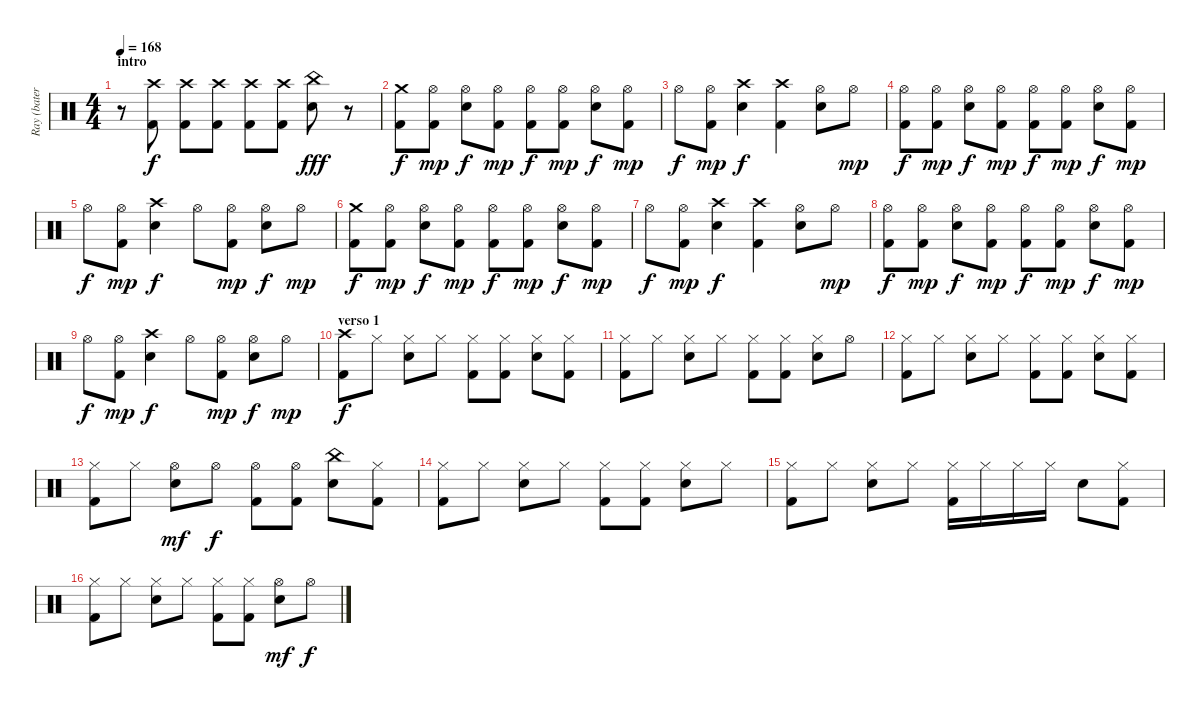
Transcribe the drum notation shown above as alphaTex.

\track ("Ray (batería)" "Ray (bater") {instrument percussion}
\staff {score}
\articulation defaults
\ts (4 4)
\section ("" "intro")
\tempo 168
\clef neutral
\ks c
r.8{dy f} ("Crash high (hit)" "Kick (hit) 2").8 ("Crash high (hit)" "Kick (hit) 2").8 ("Crash high (hit)" "Kick (hit) 2").8 ("Crash high (hit)" "Kick (hit) 2").8 ("Crash high (hit)" "Kick (hit) 2").8 ("China (hit)" "Snare (hit) 2").8{dy fff} r.8 |
("Crash medium (hit)" "Kick (hit) 2").8{dy f} ("Hi-Hat (open)" "Kick (hit) 2").8{dy mp} ("Hi-Hat (open)" "Snare (hit) 2").8{dy f} ("Hi-Hat (open)" "Kick (hit) 2").8{dy mp} ("Hi-Hat (open)" "Kick (hit) 2").8{dy f} ("Hi-Hat (open)" "Kick (hit) 2").8{dy mp} ("Hi-Hat (open)" "Snare (hit) 2").8{dy f} ("Hi-Hat (open)" "Kick (hit) 2").8{dy mp} |
"Hi-Hat (open)".8{dy f} ("Hi-Hat (open)" "Kick (hit) 2").8{dy mp} ("Crash high (hit)" "Snare (hit) 2").4{dy f} ("Crash high (hit)" "Kick (hit) 2").4 ("Hi-Hat (open)" "Snare (hit) 2").8 "Hi-Hat (open)".8{dy mp} |
("Hi-Hat (open)" "Kick (hit) 2").8{dy f} ("Hi-Hat (open)" "Kick (hit) 2").8{dy mp} ("Hi-Hat (open)" "Snare (hit) 2").8{dy f} ("Hi-Hat (open)" "Kick (hit) 2").8{dy mp} ("Hi-Hat (open)" "Kick (hit) 2").8{dy f} ("Hi-Hat (open)" "Kick (hit) 2").8{dy mp} ("Hi-Hat (open)" "Snare (hit) 2").8{dy f} ("Hi-Hat (open)" "Kick (hit) 2").8{dy mp} |
"Hi-Hat (open)".8{dy f} ("Hi-Hat (open)" "Kick (hit) 2").8{dy mp} ("Crash high (hit)" "Snare (hit) 2").4{dy f} "Hi-Hat (open)".8 ("Hi-Hat (open)" "Kick (hit) 2").8{dy mp} ("Hi-Hat (open)" "Snare (hit) 2").8{dy f} "Hi-Hat (open)".8{dy mp} |
("Crash medium (hit)" "Kick (hit) 2").8{dy f} ("Hi-Hat (open)" "Kick (hit) 2").8{dy mp} ("Hi-Hat (open)" "Snare (hit) 2").8{dy f} ("Hi-Hat (open)" "Kick (hit) 2").8{dy mp} ("Hi-Hat (open)" "Kick (hit) 2").8{dy f} ("Hi-Hat (open)" "Kick (hit) 2").8{dy mp} ("Hi-Hat (open)" "Snare (hit) 2").8{dy f} ("Hi-Hat (open)" "Kick (hit) 2").8{dy mp} |
"Hi-Hat (open)".8{dy f} ("Hi-Hat (open)" "Kick (hit) 2").8{dy mp} ("Crash high (hit)" "Snare (hit) 2").4{dy f} ("Crash high (hit)" "Kick (hit) 2").4 ("Hi-Hat (open)" "Snare (hit) 2").8 "Hi-Hat (open)".8{dy mp} |
("Hi-Hat (open)" "Kick (hit) 2").8{dy f} ("Hi-Hat (open)" "Kick (hit) 2").8{dy mp} ("Hi-Hat (open)" "Snare (hit) 2").8{dy f} ("Hi-Hat (open)" "Kick (hit) 2").8{dy mp} ("Hi-Hat (open)" "Kick (hit) 2").8{dy f} ("Hi-Hat (open)" "Kick (hit) 2").8{dy mp} ("Hi-Hat (open)" "Snare (hit) 2").8{dy f} ("Hi-Hat (open)" "Kick (hit) 2").8{dy mp} |
"Hi-Hat (open)".8{dy f} ("Hi-Hat (open)" "Kick (hit) 2").8{dy mp} ("Crash high (hit)" "Snare (hit) 2").4{dy f} "Hi-Hat (open)".8 ("Hi-Hat (open)" "Kick (hit) 2").8{dy mp} ("Hi-Hat (open)" "Snare (hit) 2").8{dy f} "Hi-Hat (open)".8{dy mp} |
\section ("" "verso 1")
("Crash high (hit)" "Kick (hit) 2").8{dy f} "Hi-Hat (closed)".8 ("Hi-Hat (closed)" "Snare (hit) 2").8 "Hi-Hat (closed)".8 ("Hi-Hat (closed)" "Kick (hit) 2").8 ("Hi-Hat (closed)" "Kick (hit) 2").8 ("Hi-Hat (closed)" "Snare (hit) 2").8 ("Hi-Hat (closed)" "Kick (hit) 2").8 |
("Hi-Hat (closed)" "Kick (hit) 2").8 "Hi-Hat (closed)".8 ("Hi-Hat (closed)" "Snare (hit) 2").8 "Hi-Hat (closed)".8 ("Hi-Hat (closed)" "Kick (hit) 2").8 ("Hi-Hat (closed)" "Kick (hit) 2").8 ("Hi-Hat (closed)" "Snare (hit) 2").8 "Hi-Hat (open)".8 |
("Hi-Hat (closed)" "Kick (hit) 2").8 "Hi-Hat (closed)".8 ("Hi-Hat (closed)" "Snare (hit) 2").8 "Hi-Hat (closed)".8 ("Hi-Hat (closed)" "Kick (hit) 2").8 ("Hi-Hat (closed)" "Kick (hit) 2").8 ("Hi-Hat (closed)" "Snare (hit) 2").8 ("Hi-Hat (closed)" "Kick (hit) 2").8 |
("Hi-Hat (closed)" "Kick (hit) 2").8 "Hi-Hat (closed)".8 ("Hi-Hat (open)" "Snare (hit) 2").8{dy mf} "Hi-Hat (open)".8{dy f} ("Hi-Hat (open)" "Kick (hit) 2").8 ("Hi-Hat (open)" "Kick (hit) 2").8 ("China (hit)" "Snare (hit) 2").8 ("Hi-Hat (closed)" "Kick (hit) 2").8 |
("Hi-Hat (closed)" "Kick (hit) 2").8 "Hi-Hat (closed)".8 ("Hi-Hat (closed)" "Snare (hit) 2").8 "Hi-Hat (closed)".8 ("Hi-Hat (closed)" "Kick (hit) 2").8 ("Hi-Hat (closed)" "Kick (hit) 2").8 ("Hi-Hat (closed)" "Snare (hit) 2").8 "Hi-Hat (closed)".8 |
("Hi-Hat (closed)" "Kick (hit) 2").8 "Hi-Hat (closed)".8 ("Hi-Hat (closed)" "Snare (hit) 2").8 "Hi-Hat (closed)".8 ("Hi-Hat (closed)" "Kick (hit) 2").16 "Hi-Hat (closed)".16 "Hi-Hat (closed)".16 "Hi-Hat (closed)".16 "Snare (hit) 2".8 ("Hi-Hat (closed)" "Kick (hit) 2").8 |
("Hi-Hat (closed)" "Kick (hit) 2").8 "Hi-Hat (closed)".8 ("Hi-Hat (closed)" "Snare (hit) 2").8 "Hi-Hat (closed)".8 ("Hi-Hat (closed)" "Kick (hit) 2").8 ("Hi-Hat (closed)" "Kick (hit) 2").8 ("Hi-Hat (open)" "Snare (hit) 2").8{dy mf} "Hi-Hat (open)".8{dy f}
